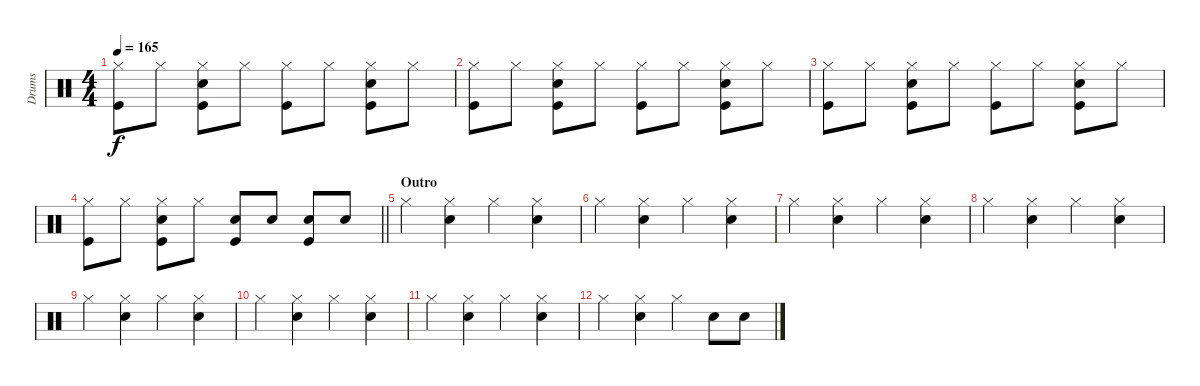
\track ("Drums" "Drums") {instrument percussion}
\staff {score}
\articulation defaults
\ts (4 4)
\tempo 165
\clef neutral
\ks c
("Hi-Hat (closed)" "Kick (hit)").8{dy f} "Hi-Hat (closed)".8 ("Hi-Hat (closed)" "Kick (hit)" "Snare (hit) 2").8 "Hi-Hat (closed)".8 ("Hi-Hat (closed)" "Kick (hit)").8 "Hi-Hat (closed)".8 ("Hi-Hat (closed)" "Kick (hit)" "Snare (hit) 2").8 "Hi-Hat (closed)".8 |
("Hi-Hat (closed)" "Kick (hit)").8 "Hi-Hat (closed)".8 ("Hi-Hat (closed)" "Kick (hit)" "Snare (hit) 2").8 "Hi-Hat (closed)".8 ("Hi-Hat (closed)" "Kick (hit)").8 "Hi-Hat (closed)".8 ("Hi-Hat (closed)" "Kick (hit)" "Snare (hit) 2").8 "Hi-Hat (closed)".8 |
("Hi-Hat (closed)" "Kick (hit)").8 "Hi-Hat (closed)".8 ("Hi-Hat (closed)" "Kick (hit)" "Snare (hit) 2").8 "Hi-Hat (closed)".8 ("Hi-Hat (closed)" "Kick (hit)").8 "Hi-Hat (closed)".8 ("Hi-Hat (closed)" "Kick (hit)" "Snare (hit) 2").8 "Hi-Hat (closed)".8 |
\barLineRight lightlight
("Hi-Hat (closed)" "Kick (hit)").8 "Hi-Hat (closed)".8 ("Hi-Hat (closed)" "Kick (hit)" "Snare (hit) 2").8 "Hi-Hat (closed)".8 ("Kick (hit)" "Snare (hit) 2").8 "Snare (hit) 2".8 ("Kick (hit)" "Snare (hit) 2").8 "Snare (hit) 2".8 |
\section ("" "Outro")
"Hi-Hat (closed)".4 ("Hi-Hat (closed)" "Snare (hit) 2").4 "Hi-Hat (closed)".4 ("Hi-Hat (closed)" "Snare (hit) 2").4 |
"Hi-Hat (closed)".4 ("Hi-Hat (closed)" "Snare (hit) 2").4 "Hi-Hat (closed)".4 ("Hi-Hat (closed)" "Snare (hit) 2").4 |
"Hi-Hat (closed)".4 ("Hi-Hat (closed)" "Snare (hit) 2").4 "Hi-Hat (closed)".4 ("Hi-Hat (closed)" "Snare (hit) 2").4 |
"Hi-Hat (closed)".4 ("Hi-Hat (closed)" "Snare (hit) 2").4 "Hi-Hat (closed)".4 ("Hi-Hat (closed)" "Snare (hit) 2").4 |
"Hi-Hat (closed)".4 ("Hi-Hat (closed)" "Snare (hit) 2").4 "Hi-Hat (closed)".4 ("Hi-Hat (closed)" "Snare (hit) 2").4 |
"Hi-Hat (closed)".4 ("Hi-Hat (closed)" "Snare (hit) 2").4 "Hi-Hat (closed)".4 ("Hi-Hat (closed)" "Snare (hit) 2").4 |
"Hi-Hat (closed)".4 ("Hi-Hat (closed)" "Snare (hit) 2").4 "Hi-Hat (closed)".4 ("Hi-Hat (closed)" "Snare (hit) 2").4 |
"Hi-Hat (closed)".4 ("Hi-Hat (closed)" "Snare (hit) 2").4 "Hi-Hat (closed)".4 "Snare (hit) 2".8 "Snare (hit) 2".8
